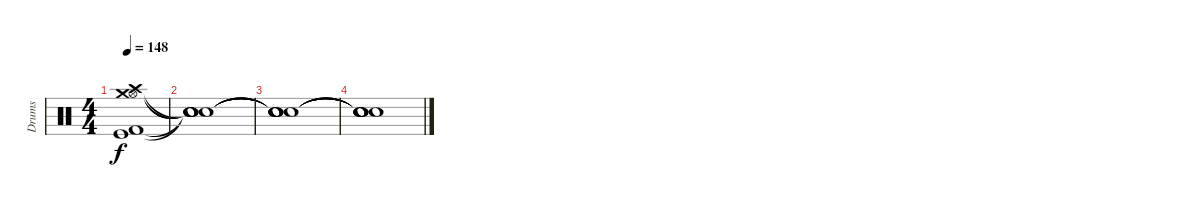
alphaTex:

\track ("Drums" "Drums") {instrument percussion}
\staff {score}
\articulation defaults
\ts (4 4)
\tempo 148
\clef neutral
\ks c
("Kick (hit)" "Crash high (hit)" "Crash medium (hit)" "Hi-Hat (open)" "Kick (hit) 2").1{dy f} |
("Snare (hit)"{t} "Snare (hit)"{t} "Snare (hit)"{t} "Snare (hit)"{t} "Snare (hit)"{t}).1 |
("Snare (hit)"{t} "Snare (hit)"{t} "Snare (hit)"{t} "Snare (hit)"{t} "Snare (hit)"{t}).1 |
("Snare (hit)"{t} "Snare (hit)"{t} "Snare (hit)"{t} "Snare (hit)"{t} "Snare (hit)"{t}).1
